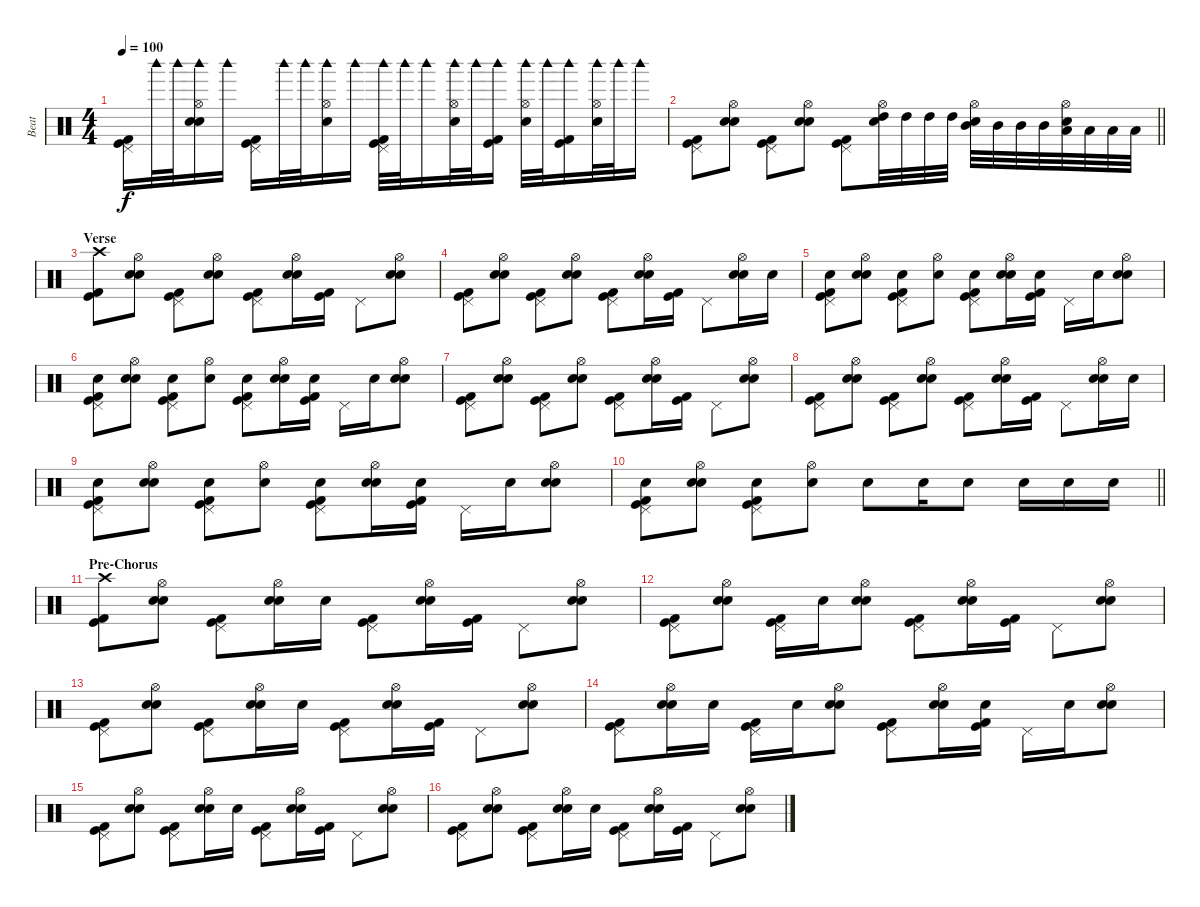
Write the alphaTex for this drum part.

\track ("Beat" "Beat") {instrument percussion}
\staff {score}
\articulation defaults
\ts (4 4)
\tempo 100
\clef neutral
\ks c
("Pedal Hi-Hat (hit)" "Kick (hit)" "Kick (hit) 2").16{dy f} "Woodblock high (hit)".32 "Woodblock high (hit)".32 ("Hi-Hat (open)" "Woodblock high (hit)" "Snare (hit) 2" "Hand Clap (hit)").16 "Woodblock high (hit)".16 ("Pedal Hi-Hat (hit)" "Kick (hit)" "Kick (hit) 2").16 "Woodblock high (hit)".32 "Woodblock high (hit)".32 ("Hi-Hat (open)" "Woodblock high (hit)" "Snare (hit) 2").16 "Woodblock high (hit)".16 ("Pedal Hi-Hat (hit)" "Woodblock high (hit)" "Kick (hit)" "Kick (hit) 2").32 "Woodblock high (hit)".32 "Woodblock high (hit)".16 ("Hi-Hat (open)" "Woodblock high (hit)" "Snare (hit) 2").32 "Woodblock high (hit)".32 ("Woodblock high (hit)" "Kick (hit)" "Kick (hit) 2").16 ("Hi-Hat (open)" "Woodblock high (hit)" "Snare (hit) 2").32 "Woodblock high (hit)".32 ("Woodblock high (hit)" "Kick (hit)" "Kick (hit) 2").16 ("Hi-Hat (open)" "Woodblock high (hit)" "Snare (hit) 2").32 "Woodblock high (hit)".32 "Woodblock high (hit)".16 |
\barLineRight lightlight
("Pedal Hi-Hat (hit)" "Kick (hit)" "Kick (hit) 2").8 ("Hi-Hat (open)" "Hand Clap (hit)" "Snare (hit) 2").8 ("Pedal Hi-Hat (hit)" "Kick (hit)" "Kick (hit) 2").8 ("Hi-Hat (open)" "Hand Clap (hit)" "Snare (hit) 2").8 ("Pedal Hi-Hat (hit)" "Kick (hit)" "Kick (hit) 2").8 ("Hi-Hat (open)" "High Tom (hit)" "Snare (hit) 2").32 "High Tom (hit)".32 "High Tom (hit)".32 "High Tom (hit)".32 ("Hi-Hat (open)" "Mid Tom (hit)" "Snare (hit) 2").32 "Mid Tom (hit)".32 "Mid Tom (hit)".32 "Mid Tom (hit)".32 ("Hi-Hat (open)" "Snare (hit) 2" "Low Tom (hit)").32 "Low Tom (hit)".32 "Low Tom (hit)".32 "Low Tom (hit)".32 |
\section ("" "Verse")
("Crash high (hit)" "Kick (hit)" "Kick (hit) 2").8 ("Hi-Hat (open)" "Hand Clap (hit)" "Snare (hit) 2").8 ("Pedal Hi-Hat (hit)" "Kick (hit)" "Kick (hit) 2").8 ("Hi-Hat (open)" "Hand Clap (hit)" "Snare (hit) 2").8 ("Pedal Hi-Hat (hit)" "Kick (hit)" "Kick (hit) 2").8 ("Hi-Hat (open)" "Hand Clap (hit)" "Snare (hit) 2").16 ("Kick (hit)" "Kick (hit) 2").16 "Pedal Hi-Hat (hit)".8 ("Hi-Hat (open)" "Hand Clap (hit)" "Snare (hit) 2").8 |
("Pedal Hi-Hat (hit)" "Kick (hit)" "Kick (hit) 2").8 ("Hi-Hat (open)" "Hand Clap (hit)" "Snare (hit) 2").8 ("Pedal Hi-Hat (hit)" "Kick (hit)" "Kick (hit) 2").8 ("Hi-Hat (open)" "Hand Clap (hit)" "Snare (hit) 2").8 ("Pedal Hi-Hat (hit)" "Kick (hit)" "Kick (hit) 2").8 ("Hi-Hat (open)" "Hand Clap (hit)" "Snare (hit) 2").16 ("Kick (hit)" "Kick (hit) 2").16 "Pedal Hi-Hat (hit)".8 ("Hi-Hat (open)" "Hand Clap (hit)" "Snare (hit) 2").16 "Hand Clap (hit)".16 |
("Pedal Hi-Hat (hit)" "Hand Clap (hit)" "Kick (hit)" "Kick (hit) 2").8 ("Hi-Hat (open)" "Hand Clap (hit)" "Snare (hit) 2").8 ("Pedal Hi-Hat (hit)" "Hand Clap (hit)" "Kick (hit)" "Kick (hit) 2").8 ("Hi-Hat (open)" "Snare (hit) 2").8 ("Pedal Hi-Hat (hit)" "Hand Clap (hit)" "Kick (hit)" "Kick (hit) 2").8 ("Hi-Hat (open)" "Hand Clap (hit)" "Snare (hit) 2").16 ("Hand Clap (hit)" "Kick (hit)" "Kick (hit) 2").16 "Pedal Hi-Hat (hit)".16 "Hand Clap (hit)".16 ("Hi-Hat (open)" "Hand Clap (hit)" "Snare (hit) 2").8 |
("Pedal Hi-Hat (hit)" "Hand Clap (hit)" "Kick (hit)" "Kick (hit) 2").8 ("Hi-Hat (open)" "Hand Clap (hit)" "Snare (hit) 2").8 ("Pedal Hi-Hat (hit)" "Hand Clap (hit)" "Kick (hit)" "Kick (hit) 2").8 ("Hi-Hat (open)" "Snare (hit) 2").8 ("Pedal Hi-Hat (hit)" "Hand Clap (hit)" "Kick (hit)" "Kick (hit) 2").8 ("Hi-Hat (open)" "Hand Clap (hit)" "Snare (hit) 2").16 ("Hand Clap (hit)" "Kick (hit)" "Kick (hit) 2").16 "Pedal Hi-Hat (hit)".16 "Hand Clap (hit)".16 ("Hi-Hat (open)" "Hand Clap (hit)" "Snare (hit) 2").8 |
("Pedal Hi-Hat (hit)" "Kick (hit)" "Kick (hit) 2").8 ("Hi-Hat (open)" "Hand Clap (hit)" "Snare (hit) 2").8 ("Pedal Hi-Hat (hit)" "Kick (hit)" "Kick (hit) 2").8 ("Hi-Hat (open)" "Hand Clap (hit)" "Snare (hit) 2").8 ("Pedal Hi-Hat (hit)" "Kick (hit)" "Kick (hit) 2").8 ("Hi-Hat (open)" "Hand Clap (hit)" "Snare (hit) 2").16 ("Kick (hit)" "Kick (hit) 2").16 "Pedal Hi-Hat (hit)".8 ("Hi-Hat (open)" "Hand Clap (hit)" "Snare (hit) 2").8 |
("Pedal Hi-Hat (hit)" "Kick (hit)" "Kick (hit) 2").8 ("Hi-Hat (open)" "Hand Clap (hit)" "Snare (hit) 2").8 ("Pedal Hi-Hat (hit)" "Kick (hit)" "Kick (hit) 2").8 ("Hi-Hat (open)" "Hand Clap (hit)" "Snare (hit) 2").8 ("Pedal Hi-Hat (hit)" "Kick (hit)" "Kick (hit) 2").8 ("Hi-Hat (open)" "Hand Clap (hit)" "Snare (hit) 2").16 ("Kick (hit)" "Kick (hit) 2").16 "Pedal Hi-Hat (hit)".8 ("Hi-Hat (open)" "Hand Clap (hit)" "Snare (hit) 2").16 "Hand Clap (hit)".16 |
("Pedal Hi-Hat (hit)" "Hand Clap (hit)" "Kick (hit)" "Kick (hit) 2").8 ("Hi-Hat (open)" "Hand Clap (hit)" "Snare (hit) 2").8 ("Pedal Hi-Hat (hit)" "Hand Clap (hit)" "Kick (hit)" "Kick (hit) 2").8 ("Hi-Hat (open)" "Snare (hit) 2").8 ("Pedal Hi-Hat (hit)" "Hand Clap (hit)" "Kick (hit)" "Kick (hit) 2").8 ("Hi-Hat (open)" "Hand Clap (hit)" "Snare (hit) 2").16 ("Hand Clap (hit)" "Kick (hit)" "Kick (hit) 2").16 "Pedal Hi-Hat (hit)".16 "Hand Clap (hit)".16 ("Hi-Hat (open)" "Hand Clap (hit)" "Snare (hit) 2").8 |
\barLineRight lightlight
("Pedal Hi-Hat (hit)" "Hand Clap (hit)" "Kick (hit)" "Kick (hit) 2").8 ("Hi-Hat (open)" "Hand Clap (hit)" "Snare (hit) 2").8 ("Pedal Hi-Hat (hit)" "Hand Clap (hit)" "Kick (hit)" "Kick (hit) 2").8 ("Hi-Hat (open)" "Snare (hit) 2").8 "Hand Clap (hit)".8 "Hand Clap (hit)".16 "Hand Clap (hit)".8 "Hand Clap (hit)".16 "Hand Clap (hit)".16 "Hand Clap (hit)".16 |
\section ("" "Pre-Chorus")
("Crash high (hit)" "Kick (hit)" "Kick (hit) 2").8 ("Hi-Hat (open)" "Hand Clap (hit)" "Snare (hit) 2").8 ("Pedal Hi-Hat (hit)" "Kick (hit)" "Kick (hit) 2").8 ("Hi-Hat (open)" "Hand Clap (hit)" "Snare (hit) 2").16 "Hand Clap (hit)".16 ("Pedal Hi-Hat (hit)" "Kick (hit)" "Kick (hit) 2").8 ("Hi-Hat (open)" "Hand Clap (hit)" "Snare (hit) 2").16 ("Kick (hit)" "Kick (hit) 2").16 "Pedal Hi-Hat (hit)".8 ("Hi-Hat (open)" "Hand Clap (hit)" "Snare (hit) 2").8 |
("Pedal Hi-Hat (hit)" "Kick (hit)" "Kick (hit) 2").8 ("Hi-Hat (open)" "Hand Clap (hit)" "Snare (hit) 2").8 ("Pedal Hi-Hat (hit)" "Kick (hit)" "Kick (hit) 2").16 "Hand Clap (hit)".16 ("Hi-Hat (open)" "Hand Clap (hit)" "Snare (hit) 2").8 ("Pedal Hi-Hat (hit)" "Kick (hit)" "Kick (hit) 2").8 ("Hi-Hat (open)" "Hand Clap (hit)" "Snare (hit) 2").16 ("Kick (hit)" "Kick (hit) 2").16 "Pedal Hi-Hat (hit)".8 ("Hi-Hat (open)" "Hand Clap (hit)" "Snare (hit) 2").8 |
("Pedal Hi-Hat (hit)" "Kick (hit)" "Kick (hit) 2").8 ("Hi-Hat (open)" "Hand Clap (hit)" "Snare (hit) 2").8 ("Pedal Hi-Hat (hit)" "Kick (hit)" "Kick (hit) 2").8 ("Hi-Hat (open)" "Hand Clap (hit)" "Snare (hit) 2").16 "Hand Clap (hit)".16 ("Pedal Hi-Hat (hit)" "Kick (hit)" "Kick (hit) 2").8 ("Hi-Hat (open)" "Hand Clap (hit)" "Snare (hit) 2").16 ("Kick (hit)" "Kick (hit) 2").16 "Pedal Hi-Hat (hit)".8 ("Hi-Hat (open)" "Hand Clap (hit)" "Snare (hit) 2").8 |
("Pedal Hi-Hat (hit)" "Kick (hit)" "Kick (hit) 2").8 ("Hi-Hat (open)" "Hand Clap (hit)" "Snare (hit) 2").16 "Hand Clap (hit)".16 ("Pedal Hi-Hat (hit)" "Kick (hit)" "Kick (hit) 2").16 "Hand Clap (hit)".16 ("Hi-Hat (open)" "Hand Clap (hit)" "Snare (hit) 2").8 ("Pedal Hi-Hat (hit)" "Kick (hit)" "Kick (hit) 2").8 ("Hi-Hat (open)" "Hand Clap (hit)" "Snare (hit) 2").16 ("Hand Clap (hit)" "Kick (hit)" "Kick (hit) 2").16 "Pedal Hi-Hat (hit)".16 "Hand Clap (hit)".16 ("Hi-Hat (open)" "Hand Clap (hit)" "Snare (hit) 2").8 |
("Pedal Hi-Hat (hit)" "Kick (hit)" "Kick (hit) 2").8 ("Hi-Hat (open)" "Hand Clap (hit)" "Snare (hit) 2").8 ("Pedal Hi-Hat (hit)" "Kick (hit)" "Kick (hit) 2").8 ("Hi-Hat (open)" "Hand Clap (hit)" "Snare (hit) 2").16 "Hand Clap (hit)".16 ("Pedal Hi-Hat (hit)" "Kick (hit)" "Kick (hit) 2").8 ("Hi-Hat (open)" "Hand Clap (hit)" "Snare (hit) 2").16 ("Kick (hit)" "Kick (hit) 2").16 "Pedal Hi-Hat (hit)".8 ("Hi-Hat (open)" "Hand Clap (hit)" "Snare (hit) 2").8 |
("Pedal Hi-Hat (hit)" "Kick (hit)" "Kick (hit) 2").8 ("Hi-Hat (open)" "Hand Clap (hit)" "Snare (hit) 2").8 ("Pedal Hi-Hat (hit)" "Kick (hit)" "Kick (hit) 2").8 ("Hi-Hat (open)" "Hand Clap (hit)" "Snare (hit) 2").16 "Hand Clap (hit)".16 ("Pedal Hi-Hat (hit)" "Kick (hit)" "Kick (hit) 2").8 ("Hi-Hat (open)" "Hand Clap (hit)" "Snare (hit) 2").16 ("Kick (hit)" "Kick (hit) 2").16 "Pedal Hi-Hat (hit)".8 ("Hi-Hat (open)" "Hand Clap (hit)" "Snare (hit) 2").8
